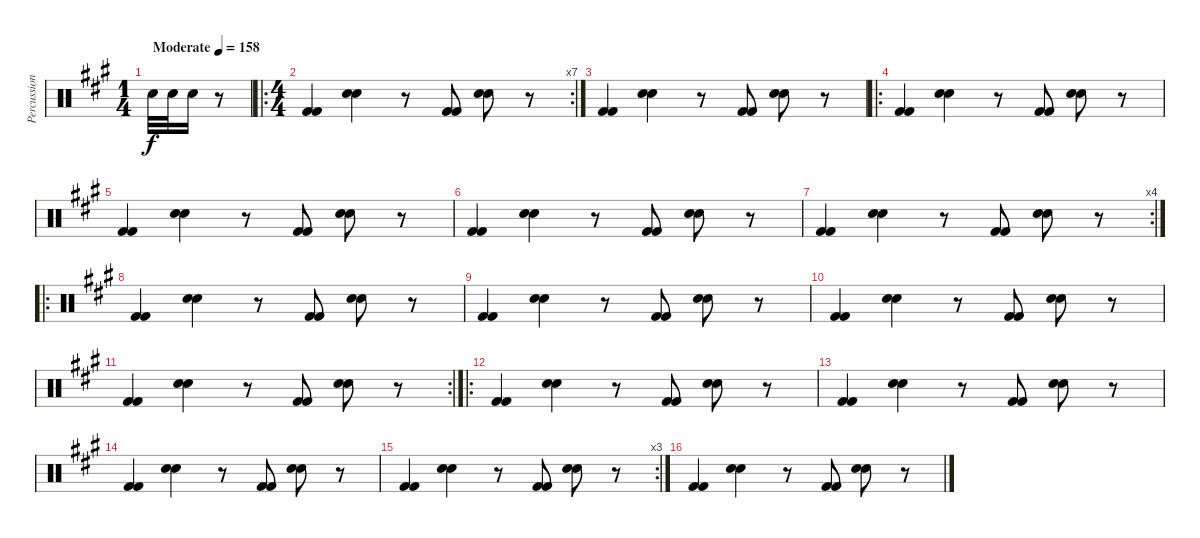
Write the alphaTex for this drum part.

\track ("Percussion" "Percussion") {instrument percussion}
\staff {score}
\articulation defaults
\ts (1 4)
\tempo (158 "Moderate")
\clef neutral
\ks a "Snare (hit) 2".32{dy f} "Snare (hit) 2".32 "Electric Snare (hit)".16
r.8 |
\ro
\rc 7
\ts (4 4)
("Kick (hit) 2" "Kick (hit) 2").4 ("Snare (hit) 2" "Snare (hit) 2").4 r.8 ("Kick (hit) 2" "Kick (hit) 2").8 ("Snare (hit) 2" "Snare (hit) 2").8 r.8 |
("Kick (hit) 2" "Kick (hit) 2").4 ("Snare (hit) 2" "Snare (hit) 2").4 r.8 ("Kick (hit) 2" "Kick (hit) 2").8 ("Snare (hit) 2" "Snare (hit) 2").8 r.8 |
\ro
("Kick (hit) 2" "Kick (hit) 2").4 ("Snare (hit) 2" "Snare (hit) 2").4 r.8 ("Kick (hit) 2" "Kick (hit) 2").8 ("Snare (hit) 2" "Snare (hit) 2").8 r.8 |
("Kick (hit) 2" "Kick (hit) 2").4 ("Snare (hit) 2" "Snare (hit) 2").4 r.8 ("Kick (hit) 2" "Kick (hit) 2").8 ("Snare (hit) 2" "Snare (hit) 2").8 r.8 |
("Kick (hit) 2" "Kick (hit) 2").4 ("Snare (hit) 2" "Snare (hit) 2").4 r.8 ("Kick (hit) 2" "Kick (hit) 2").8 ("Snare (hit) 2" "Snare (hit) 2").8 r.8 |
\rc 4
("Kick (hit) 2" "Kick (hit) 2").4 ("Snare (hit) 2" "Snare (hit) 2").4 r.8 ("Kick (hit) 2" "Kick (hit) 2").8 ("Snare (hit) 2" "Snare (hit) 2").8 r.8 |
\ro
("Kick (hit) 2" "Kick (hit) 2").4 ("Snare (hit) 2" "Snare (hit) 2").4 r.8 ("Kick (hit) 2" "Kick (hit) 2").8 ("Snare (hit) 2" "Snare (hit) 2").8 r.8 |
("Kick (hit) 2" "Kick (hit) 2").4 ("Snare (hit) 2" "Snare (hit) 2").4 r.8 ("Kick (hit) 2" "Kick (hit) 2").8 ("Snare (hit) 2" "Snare (hit) 2").8 r.8 |
("Kick (hit) 2" "Kick (hit) 2").4 ("Snare (hit) 2" "Snare (hit) 2").4 r.8 ("Kick (hit) 2" "Kick (hit) 2").8 ("Snare (hit) 2" "Snare (hit) 2").8 r.8 |
\rc 2
("Kick (hit) 2" "Kick (hit) 2").4 ("Snare (hit) 2" "Snare (hit) 2").4 r.8 ("Kick (hit) 2" "Kick (hit) 2").8 ("Snare (hit) 2" "Snare (hit) 2").8 r.8 |
\ro
("Kick (hit) 2" "Kick (hit) 2").4 ("Snare (hit) 2" "Snare (hit) 2").4 r.8 ("Kick (hit) 2" "Kick (hit) 2").8 ("Snare (hit) 2" "Snare (hit) 2").8 r.8 |
("Kick (hit) 2" "Kick (hit) 2").4 ("Snare (hit) 2" "Snare (hit) 2").4 r.8 ("Kick (hit) 2" "Kick (hit) 2").8 ("Snare (hit) 2" "Snare (hit) 2").8 r.8 |
("Kick (hit) 2" "Kick (hit) 2").4 ("Snare (hit) 2" "Snare (hit) 2").4 r.8 ("Kick (hit) 2" "Kick (hit) 2").8 ("Snare (hit) 2" "Snare (hit) 2").8 r.8 |
\rc 3
("Kick (hit) 2" "Kick (hit) 2").4 ("Snare (hit) 2" "Snare (hit) 2").4 r.8 ("Kick (hit) 2" "Kick (hit) 2").8 ("Snare (hit) 2" "Snare (hit) 2").8 r.8 |
("Kick (hit) 2" "Kick (hit) 2").4 ("Snare (hit) 2" "Snare (hit) 2").4 r.8 ("Kick (hit) 2" "Kick (hit) 2").8 ("Snare (hit) 2" "Snare (hit) 2").8 r.8
